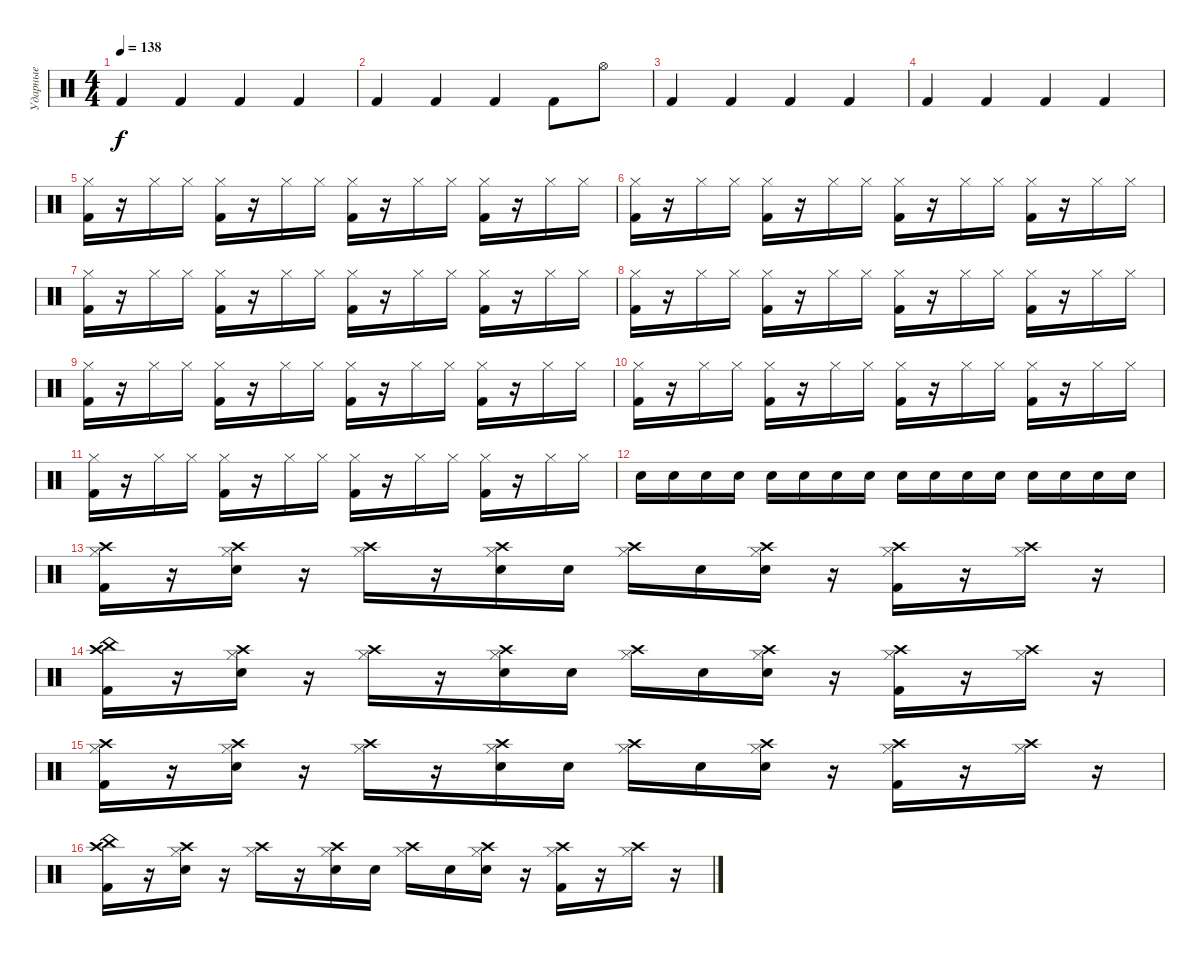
\track ("Ударные" "Ударные") {instrument percussion}
\staff {score}
\articulation defaults
\ts (4 4)
\tempo 138
\clef neutral
\ks c "Kick (hit) 2".4{dy f} "Kick (hit) 2".4 "Kick (hit) 2".4 "Kick (hit) 2".4
|
"Kick (hit) 2".4 "Kick (hit) 2".4 "Kick (hit) 2".4 "Kick (hit) 2".8 "Hi-Hat (open)".8 |
"Kick (hit) 2".4 "Kick (hit) 2".4 "Kick (hit) 2".4 "Kick (hit) 2".4 |
"Kick (hit) 2".4 "Kick (hit) 2".4 "Kick (hit) 2".4 "Kick (hit) 2".4 |
("Kick (hit) 2" "Hi-Hat (closed)").16 r.16 "Hi-Hat (closed)".16 "Hi-Hat (closed)".16 ("Kick (hit) 2" "Hi-Hat (closed)").16 r.16 "Hi-Hat (closed)".16 "Hi-Hat (closed)".16 ("Kick (hit) 2" "Hi-Hat (closed)").16 r.16 "Hi-Hat (closed)".16 "Hi-Hat (closed)".16 ("Kick (hit) 2" "Hi-Hat (closed)").16 r.16 "Hi-Hat (closed)".16 "Hi-Hat (closed)".16 |
("Kick (hit) 2" "Hi-Hat (closed)").16 r.16 "Hi-Hat (closed)".16 "Hi-Hat (closed)".16 ("Kick (hit) 2" "Hi-Hat (closed)").16 r.16 "Hi-Hat (closed)".16 "Hi-Hat (closed)".16 ("Kick (hit) 2" "Hi-Hat (closed)").16 r.16 "Hi-Hat (closed)".16 "Hi-Hat (closed)".16 ("Kick (hit) 2" "Hi-Hat (closed)").16 r.16 "Hi-Hat (closed)".16 "Hi-Hat (closed)".16 |
("Kick (hit) 2" "Hi-Hat (closed)").16 r.16 "Hi-Hat (closed)".16 "Hi-Hat (closed)".16 ("Kick (hit) 2" "Hi-Hat (closed)").16 r.16 "Hi-Hat (closed)".16 "Hi-Hat (closed)".16 ("Kick (hit) 2" "Hi-Hat (closed)").16 r.16 "Hi-Hat (closed)".16 "Hi-Hat (closed)".16 ("Kick (hit) 2" "Hi-Hat (closed)").16 r.16 "Hi-Hat (closed)".16 "Hi-Hat (closed)".16 |
("Kick (hit) 2" "Hi-Hat (closed)").16 r.16 "Hi-Hat (closed)".16 "Hi-Hat (closed)".16 ("Kick (hit) 2" "Hi-Hat (closed)").16 r.16 "Hi-Hat (closed)".16 "Hi-Hat (closed)".16 ("Kick (hit) 2" "Hi-Hat (closed)").16 r.16 "Hi-Hat (closed)".16 "Hi-Hat (closed)".16 ("Kick (hit) 2" "Hi-Hat (closed)").16 r.16 "Hi-Hat (closed)".16 "Hi-Hat (closed)".16 |
("Kick (hit) 2" "Hi-Hat (closed)").16 r.16 "Hi-Hat (closed)".16 "Hi-Hat (closed)".16 ("Kick (hit) 2" "Hi-Hat (closed)").16 r.16 "Hi-Hat (closed)".16 "Hi-Hat (closed)".16 ("Kick (hit) 2" "Hi-Hat (closed)").16 r.16 "Hi-Hat (closed)".16 "Hi-Hat (closed)".16 ("Kick (hit) 2" "Hi-Hat (closed)").16 r.16 "Hi-Hat (closed)".16 "Hi-Hat (closed)".16 |
("Kick (hit) 2" "Hi-Hat (closed)").16 r.16 "Hi-Hat (closed)".16 "Hi-Hat (closed)".16 ("Kick (hit) 2" "Hi-Hat (closed)").16 r.16 "Hi-Hat (closed)".16 "Hi-Hat (closed)".16 ("Kick (hit) 2" "Hi-Hat (closed)").16 r.16 "Hi-Hat (closed)".16 "Hi-Hat (closed)".16 ("Kick (hit) 2" "Hi-Hat (closed)").16 r.16 "Hi-Hat (closed)".16 "Hi-Hat (closed)".16 |
("Kick (hit) 2" "Hi-Hat (closed)").16 r.16 "Hi-Hat (closed)".16 "Hi-Hat (closed)".16 ("Kick (hit) 2" "Hi-Hat (closed)").16 r.16 "Hi-Hat (closed)".16 "Hi-Hat (closed)".16 ("Kick (hit) 2" "Hi-Hat (closed)").16 r.16 "Hi-Hat (closed)".16 "Hi-Hat (closed)".16 ("Kick (hit) 2" "Hi-Hat (closed)").16 r.16 "Hi-Hat (closed)".16 "Hi-Hat (closed)".16 |
"Snare (hit) 2".16 "Snare (hit) 2".16 "Snare (hit) 2".16 "Snare (hit) 2".16 "Snare (hit) 2".16 "Snare (hit) 2".16 "Snare (hit) 2".16 "Snare (hit) 2".16 "Snare (hit) 2".16 "Snare (hit) 2".16 "Snare (hit) 2".16 "Snare (hit) 2".16 "Snare (hit) 2".16 "Snare (hit) 2".16 "Snare (hit) 2".16 "Snare (hit) 2".16 |
("Kick (hit) 2" "Hi-Hat (closed)" "Crash high (hit)").16 r.16 ("Snare (hit) 2" "Hi-Hat (closed)" "Crash high (hit)").16 r.16 ("Hi-Hat (closed)" "Crash high (hit)").16 r.16 ("Snare (hit) 2" "Hi-Hat (closed)" "Crash high (hit)").16 "Snare (hit) 2".16 ("Hi-Hat (closed)" "Crash high (hit)").16 "Snare (hit) 2".16 ("Snare (hit) 2" "Hi-Hat (closed)" "Crash high (hit)").16 r.16 ("Kick (hit) 2" "Hi-Hat (closed)" "Crash high (hit)").16 r.16 ("Hi-Hat (closed)" "Crash high (hit)").16 r.16 |
("Kick (hit) 2" "Crash high (hit)" "China (hit)").16 r.16 ("Snare (hit) 2" "Hi-Hat (closed)" "Crash high (hit)").16 r.16 ("Hi-Hat (closed)" "Crash high (hit)").16 r.16 ("Snare (hit) 2" "Hi-Hat (closed)" "Crash high (hit)").16 "Snare (hit) 2".16 ("Hi-Hat (closed)" "Crash high (hit)").16 "Snare (hit) 2".16 ("Snare (hit) 2" "Hi-Hat (closed)" "Crash high (hit)").16 r.16 ("Kick (hit) 2" "Hi-Hat (closed)" "Crash high (hit)").16 r.16 ("Hi-Hat (closed)" "Crash high (hit)").16 r.16 |
("Kick (hit) 2" "Hi-Hat (closed)" "Crash high (hit)").16 r.16 ("Snare (hit) 2" "Hi-Hat (closed)" "Crash high (hit)").16 r.16 ("Hi-Hat (closed)" "Crash high (hit)").16 r.16 ("Snare (hit) 2" "Hi-Hat (closed)" "Crash high (hit)").16 "Snare (hit) 2".16 ("Hi-Hat (closed)" "Crash high (hit)").16 "Snare (hit) 2".16 ("Snare (hit) 2" "Hi-Hat (closed)" "Crash high (hit)").16 r.16 ("Kick (hit) 2" "Hi-Hat (closed)" "Crash high (hit)").16 r.16 ("Hi-Hat (closed)" "Crash high (hit)").16 r.16 |
("Kick (hit) 2" "Crash high (hit)" "China (hit)").16 r.16 ("Snare (hit) 2" "Hi-Hat (closed)" "Crash high (hit)").16 r.16 ("Hi-Hat (closed)" "Crash high (hit)").16 r.16 ("Snare (hit) 2" "Hi-Hat (closed)" "Crash high (hit)").16 "Snare (hit) 2".16 ("Hi-Hat (closed)" "Crash high (hit)").16 "Snare (hit) 2".16 ("Snare (hit) 2" "Hi-Hat (closed)" "Crash high (hit)").16 r.16 ("Kick (hit) 2" "Hi-Hat (closed)" "Crash high (hit)").16 r.16 ("Hi-Hat (closed)" "Crash high (hit)").16 r.16
